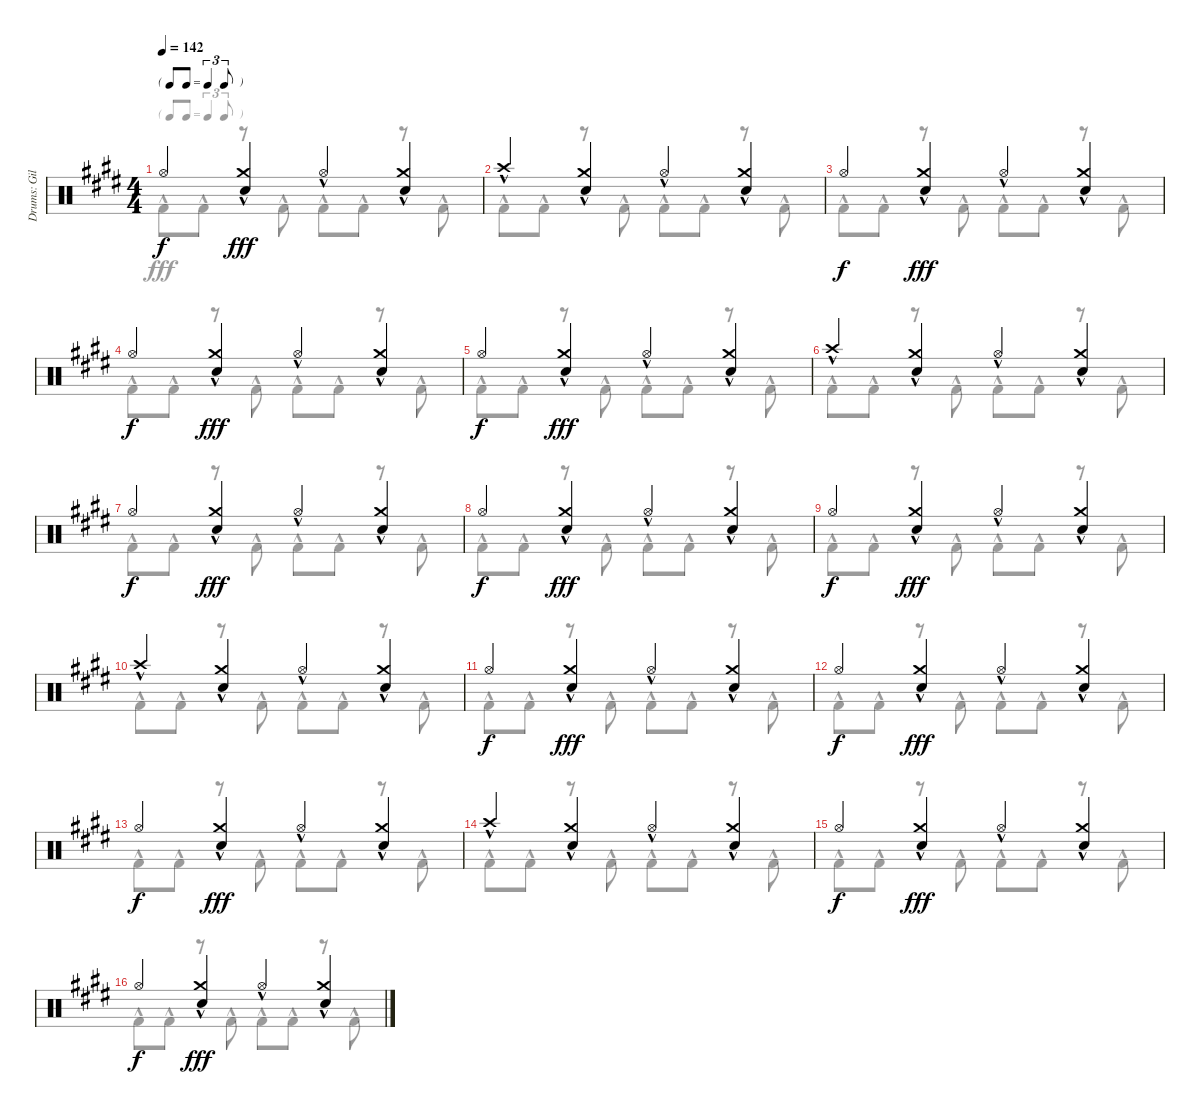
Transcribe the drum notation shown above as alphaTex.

\track ("Drums: Gil" "Drums: Gil") {instrument percussion}
\staff {score}
\articulation defaults
\voice
\ts (4 4)
\tf triplet8th
\tempo 142
\clef neutral
\ks e "Hi-Hat (open)".4{dy f beam merge}
("Crash medium (hit)"{hac} "Snare (hit) 2"{hac}).4{dy fff} "Hi-Hat (open)"{hac}.4{beam merge} ("Crash medium (hit)"{hac} "Snare (hit) 2"{hac}).4 |
"Crash high (hit)"{hac}.4{beam merge} ("Crash medium (hit)"{hac} "Snare (hit) 2"{hac}).4 "Hi-Hat (open)"{hac}.4{beam merge} ("Crash medium (hit)"{hac} "Snare (hit) 2"{hac}).4 |
"Hi-Hat (open)".4{dy f beam merge} ("Crash medium (hit)"{hac} "Snare (hit) 2"{hac}).4{dy fff} "Hi-Hat (open)"{hac}.4{beam merge} ("Crash medium (hit)"{hac} "Snare (hit) 2"{hac}).4 |
"Hi-Hat (open)".4{dy f beam merge} ("Crash medium (hit)"{hac} "Snare (hit) 2"{hac}).4{dy fff} "Hi-Hat (open)"{hac}.4{beam merge} ("Crash medium (hit)"{hac} "Snare (hit) 2"{hac}).4 |
"Hi-Hat (open)".4{dy f beam merge} ("Crash medium (hit)"{hac} "Snare (hit) 2"{hac}).4{dy fff} "Hi-Hat (open)"{hac}.4{beam merge} ("Crash medium (hit)"{hac} "Snare (hit) 2"{hac}).4 |
"Crash high (hit)"{hac}.4{beam merge} ("Crash medium (hit)"{hac} "Snare (hit) 2"{hac}).4 "Hi-Hat (open)"{hac}.4{beam merge} ("Crash medium (hit)"{hac} "Snare (hit) 2"{hac}).4 |
"Hi-Hat (open)".4{dy f beam merge} ("Crash medium (hit)"{hac} "Snare (hit) 2"{hac}).4{dy fff} "Hi-Hat (open)"{hac}.4{beam merge} ("Crash medium (hit)"{hac} "Snare (hit) 2"{hac}).4 |
"Hi-Hat (open)".4{dy f beam merge} ("Crash medium (hit)"{hac} "Snare (hit) 2"{hac}).4{dy fff} "Hi-Hat (open)"{hac}.4{beam merge} ("Crash medium (hit)"{hac} "Snare (hit) 2"{hac}).4 |
"Hi-Hat (open)".4{dy f beam merge} ("Crash medium (hit)"{hac} "Snare (hit) 2"{hac}).4{dy fff} "Hi-Hat (open)"{hac}.4{beam merge} ("Crash medium (hit)"{hac} "Snare (hit) 2"{hac}).4 |
"Crash high (hit)"{hac}.4{volume 8 beam merge} ("Crash medium (hit)"{hac} "Snare (hit) 2"{hac}).4 "Hi-Hat (open)"{hac}.4{beam merge} ("Crash medium (hit)"{hac} "Snare (hit) 2"{hac}).4 |
"Hi-Hat (open)".4{dy f beam merge} ("Crash medium (hit)"{hac} "Snare (hit) 2"{hac}).4{dy fff} "Hi-Hat (open)"{hac}.4{beam merge} ("Crash medium (hit)"{hac} "Snare (hit) 2"{hac}).4 |
"Hi-Hat (open)".4{dy f beam merge} ("Crash medium (hit)"{hac} "Snare (hit) 2"{hac}).4{dy fff} "Hi-Hat (open)"{hac}.4{beam merge} ("Crash medium (hit)"{hac} "Snare (hit) 2"{hac}).4 |
"Hi-Hat (open)".4{dy f beam merge} ("Crash medium (hit)"{hac} "Snare (hit) 2"{hac}).4{dy fff} "Hi-Hat (open)"{hac}.4{beam merge} ("Crash medium (hit)"{hac} "Snare (hit) 2"{hac}).4 |
"Crash high (hit)"{hac}.4{volume 0 beam merge} ("Crash medium (hit)"{hac} "Snare (hit) 2"{hac}).4 "Hi-Hat (open)"{hac}.4{beam merge} ("Crash medium (hit)"{hac} "Snare (hit) 2"{hac}).4 |
"Hi-Hat (open)".4{dy f beam merge} ("Crash medium (hit)"{hac} "Snare (hit) 2"{hac}).4{dy fff} "Hi-Hat (open)"{hac}.4{beam merge} ("Crash medium (hit)"{hac} "Snare (hit) 2"{hac}).4 |
"Hi-Hat (open)".4{dy f beam merge} ("Crash medium (hit)"{hac} "Snare (hit) 2"{hac}).4{dy fff} "Hi-Hat (open)"{hac}.4{beam merge} ("Crash medium (hit)"{hac} "Snare (hit) 2"{hac}).4
\voice
\clef neutral
\ottava regular
\simile none
\ks e "Kick (hit) 2"{hac}.8{dy fff} "Kick (hit) 2"{hac}.8
r.8 "Kick (hit) 2"{hac}.8 "Kick (hit) 2"{hac}.8 "Kick (hit) 2"{hac}.8 r.8 "Kick (hit) 2"{hac}.8 |
"Kick (hit) 2"{hac}.8 "Kick (hit) 2"{hac}.8 r.8 "Kick (hit) 2"{hac}.8 "Kick (hit) 2"{hac}.8 "Kick (hit) 2"{hac}.8 r.8 "Kick (hit) 2"{hac}.8 |
"Kick (hit) 2"{hac}.8 "Kick (hit) 2"{hac}.8 r.8 "Kick (hit) 2"{hac}.8 "Kick (hit) 2"{hac}.8 "Kick (hit) 2"{hac}.8 r.8 "Kick (hit) 2"{hac}.8 |
"Kick (hit) 2"{hac}.8 "Kick (hit) 2"{hac}.8 r.8 "Kick (hit) 2"{hac}.8 "Kick (hit) 2"{hac}.8 "Kick (hit) 2"{hac}.8 r.8 "Kick (hit) 2"{hac}.8 |
"Kick (hit) 2"{hac}.8 "Kick (hit) 2"{hac}.8 r.8 "Kick (hit) 2"{hac}.8 "Kick (hit) 2"{hac}.8 "Kick (hit) 2"{hac}.8 r.8 "Kick (hit) 2"{hac}.8 |
"Kick (hit) 2"{hac}.8 "Kick (hit) 2"{hac}.8 r.8 "Kick (hit) 2"{hac}.8 "Kick (hit) 2"{hac}.8 "Kick (hit) 2"{hac}.8 r.8 "Kick (hit) 2"{hac}.8 |
"Kick (hit) 2"{hac}.8 "Kick (hit) 2"{hac}.8 r.8 "Kick (hit) 2"{hac}.8 "Kick (hit) 2"{hac}.8 "Kick (hit) 2"{hac}.8 r.8 "Kick (hit) 2"{hac}.8 |
"Kick (hit) 2"{hac}.8 "Kick (hit) 2"{hac}.8 r.8 "Kick (hit) 2"{hac}.8 "Kick (hit) 2"{hac}.8 "Kick (hit) 2"{hac}.8 r.8 "Kick (hit) 2"{hac}.8 |
"Kick (hit) 2"{hac}.8 "Kick (hit) 2"{hac}.8 r.8 "Kick (hit) 2"{hac}.8 "Kick (hit) 2"{hac}.8 "Kick (hit) 2"{hac}.8 r.8 "Kick (hit) 2"{hac}.8 |
"Kick (hit) 2"{hac}.8 "Kick (hit) 2"{hac}.8 r.8 "Kick (hit) 2"{hac}.8 "Kick (hit) 2"{hac}.8 "Kick (hit) 2"{hac}.8 r.8 "Kick (hit) 2"{hac}.8 |
"Kick (hit) 2"{hac}.8 "Kick (hit) 2"{hac}.8 r.8 "Kick (hit) 2"{hac}.8 "Kick (hit) 2"{hac}.8 "Kick (hit) 2"{hac}.8 r.8 "Kick (hit) 2"{hac}.8 |
"Kick (hit) 2"{hac}.8 "Kick (hit) 2"{hac}.8 r.8 "Kick (hit) 2"{hac}.8 "Kick (hit) 2"{hac}.8 "Kick (hit) 2"{hac}.8 r.8 "Kick (hit) 2"{hac}.8 |
"Kick (hit) 2"{hac}.8 "Kick (hit) 2"{hac}.8 r.8 "Kick (hit) 2"{hac}.8 "Kick (hit) 2"{hac}.8 "Kick (hit) 2"{hac}.8 r.8 "Kick (hit) 2"{hac}.8 |
"Kick (hit) 2"{hac}.8 "Kick (hit) 2"{hac}.8 r.8 "Kick (hit) 2"{hac}.8 "Kick (hit) 2"{hac}.8 "Kick (hit) 2"{hac}.8 r.8 "Kick (hit) 2"{hac}.8 |
"Kick (hit) 2"{hac}.8 "Kick (hit) 2"{hac}.8 r.8 "Kick (hit) 2"{hac}.8 "Kick (hit) 2"{hac}.8 "Kick (hit) 2"{hac}.8 r.8 "Kick (hit) 2"{hac}.8 |
"Kick (hit) 2"{hac}.8 "Kick (hit) 2"{hac}.8 r.8 "Kick (hit) 2"{hac}.8 "Kick (hit) 2"{hac}.8 "Kick (hit) 2"{hac}.8 r.8 "Kick (hit) 2"{hac}.8
